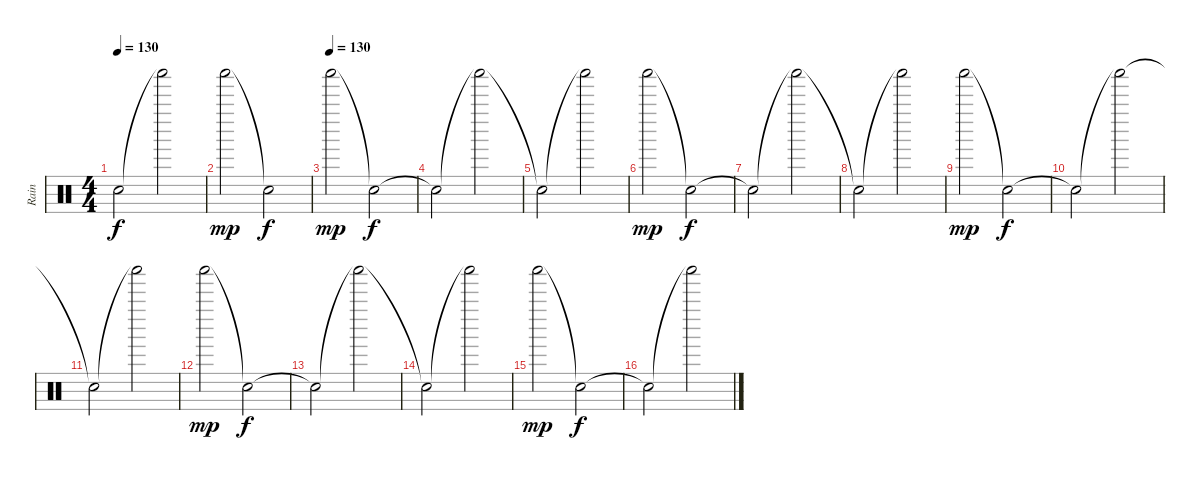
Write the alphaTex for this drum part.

\track ("Rain" "Rain") {instrument percussion}
\staff {score}
\articulation defaults
\ts (4 4)
\tempo 130
\clef neutral
\ks c "Snare (hit)"{t}.2{dy f} "Shaker (hit)"{t}.2
|
"Shaker (hit)".2{dy mp} "Snare (hit)"{t}.2{dy f} |
\tempo (130)
"Shaker (hit)".2{dy mp} "Snare (hit)"{t}.2{dy f} |
"Snare (hit)"{t}.2 "Shaker (hit)"{t}.2 |
"Snare (hit)"{t}.2 "Shaker (hit)"{t}.2 |
"Shaker (hit)".2{dy mp} "Snare (hit)"{t}.2{dy f} |
"Snare (hit)"{t}.2 "Shaker (hit)"{t}.2 |
"Snare (hit)"{t}.2 "Shaker (hit)"{t}.2 |
"Shaker (hit)".2{dy mp} "Snare (hit)"{t}.2{dy f} |
"Snare (hit)"{t}.2 "Shaker (hit)"{t}.2 |
"Snare (hit)"{t}.2 "Shaker (hit)"{t}.2 |
"Shaker (hit)".2{dy mp} "Snare (hit)"{t}.2{dy f} |
"Snare (hit)"{t}.2 "Shaker (hit)"{t}.2 |
"Snare (hit)"{t}.2 "Shaker (hit)"{t}.2 |
"Shaker (hit)".2{dy mp} "Snare (hit)"{t}.2{dy f} |
"Snare (hit)"{t}.2 "Shaker (hit)"{t}.2
